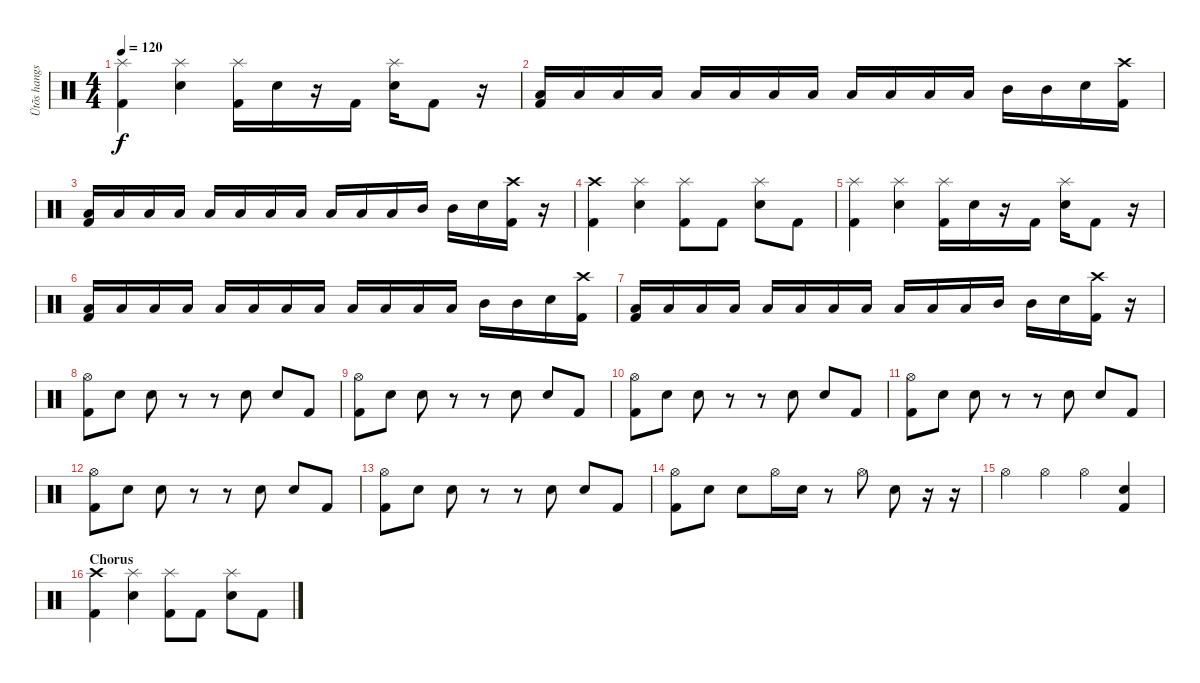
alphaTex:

\track ("Ütõs hangszer" "Ütõs hangs") {instrument percussion}
\staff {score}
\articulation defaults
\ts (4 4)
\tempo 120
\clef neutral
\ks c
("Splash (hit)" "Kick (hit) 2").4{dy f} ("Splash (hit)" "Snare (hit) 2").4 ("Splash (hit)" "Kick (hit) 2").16 "Snare (hit) 2".16 r.16 "Kick (hit) 2".16 ("Splash (hit)" "Snare (hit) 2").16 "Kick (hit) 2".8 r.16 |
("Low Tom (hit)" "Kick (hit) 2").16 "Low Tom (hit)".16 "Low Tom (hit)".16 "Low Tom (hit)".16 "Low Tom (hit)".16 "Low Tom (hit)".16 "Low Tom (hit)".16 "Low Tom (hit)".16 "Low Tom (hit)".16 "Low Tom (hit)".16 "Low Tom (hit)".16 "Low Tom (hit)".16 "Mid Tom (hit)".16 "Mid Tom (hit)".16 "Snare (hit) 2".16 ("Crash high (hit)" "Kick (hit) 2").16 |
("Low Tom (hit)" "Kick (hit) 2").16 "Low Tom (hit)".16 "Low Tom (hit)".16 "Low Tom (hit)".16 "Low Tom (hit)".16 "Low Tom (hit)".16 "Low Tom (hit)".16 "Low Tom (hit)".16 "Low Tom (hit)".16 "Low Tom (hit)".16 "Low Tom (hit)".16 "Mid Tom (hit)".16 "Mid Tom (hit)".16 "Snare (hit) 2".16 ("Crash high (hit)" "Kick (hit) 2").16 r.16 |
("Crash high (hit)" "Kick (hit) 2").4 ("Splash (hit)" "Snare (hit) 2").4 ("Splash (hit)" "Kick (hit) 2").8 "Kick (hit) 2".8 ("Splash (hit)" "Snare (hit) 2").8 "Kick (hit) 2".8 |
("Splash (hit)" "Kick (hit) 2").4 ("Splash (hit)" "Snare (hit) 2").4 ("Splash (hit)" "Kick (hit) 2").16 "Snare (hit) 2".16 r.16 "Kick (hit) 2".16 ("Splash (hit)" "Snare (hit) 2").16 "Kick (hit) 2".8 r.16 |
("Low Tom (hit)" "Kick (hit) 2").16 "Low Tom (hit)".16 "Low Tom (hit)".16 "Low Tom (hit)".16 "Low Tom (hit)".16 "Low Tom (hit)".16 "Low Tom (hit)".16 "Low Tom (hit)".16 "Low Tom (hit)".16 "Low Tom (hit)".16 "Low Tom (hit)".16 "Low Tom (hit)".16 "Mid Tom (hit)".16 "Mid Tom (hit)".16 "Snare (hit) 2".16 ("Crash high (hit)" "Kick (hit) 2").16 |
("Low Tom (hit)" "Kick (hit) 2").16 "Low Tom (hit)".16 "Low Tom (hit)".16 "Low Tom (hit)".16 "Low Tom (hit)".16 "Low Tom (hit)".16 "Low Tom (hit)".16 "Low Tom (hit)".16 "Low Tom (hit)".16 "Low Tom (hit)".16 "Low Tom (hit)".16 "Mid Tom (hit)".16 "Mid Tom (hit)".16 "Snare (hit) 2".16 ("Crash high (hit)" "Kick (hit) 2").16 r.16 |
("Hi-Hat (open)" "Kick (hit) 2").8 "Snare (hit) 2".8 "Snare (hit) 2".8 r.8 r.8 "Snare (hit) 2".8 "Snare (hit) 2".8 "Kick (hit) 2".8 |
("Hi-Hat (open)" "Kick (hit) 2").8 "Snare (hit) 2".8 "Snare (hit) 2".8 r.8 r.8 "Snare (hit) 2".8 "Snare (hit) 2".8 "Kick (hit) 2".8 |
("Hi-Hat (open)" "Kick (hit) 2").8 "Snare (hit) 2".8 "Snare (hit) 2".8 r.8 r.8 "Snare (hit) 2".8 "Snare (hit) 2".8 "Kick (hit) 2".8 |
("Hi-Hat (open)" "Kick (hit) 2").8 "Snare (hit) 2".8 "Snare (hit) 2".8 r.8 r.8 "Snare (hit) 2".8 "Snare (hit) 2".8 "Kick (hit) 2".8 |
("Hi-Hat (open)" "Kick (hit) 2").8 "Snare (hit) 2".8 "Snare (hit) 2".8 r.8 r.8 "Snare (hit) 2".8 "Snare (hit) 2".8 "Kick (hit) 2".8 |
("Hi-Hat (open)" "Kick (hit) 2").8 "Snare (hit) 2".8 "Snare (hit) 2".8 r.8 r.8 "Snare (hit) 2".8 "Snare (hit) 2".8 "Kick (hit) 2".8 |
("Hi-Hat (open)" "Kick (hit) 2").8 "Snare (hit) 2".8 "Snare (hit) 2".8 "Hi-Hat (open)".16 "Snare (hit) 2".16 r.8 "Hi-Hat (open)".8 "Snare (hit) 2".8 r.16 r.16 |
"Hi-Hat (open)".4 "Hi-Hat (open)".4 "Hi-Hat (open)".4 ("Snare (hit) 2" "Kick (hit) 2").4 |
\section ("" "Chorus")
("Crash high (hit)" "Kick (hit) 2").4 ("Splash (hit)" "Snare (hit) 2").4 ("Splash (hit)" "Kick (hit) 2").8 "Kick (hit) 2".8 ("Splash (hit)" "Snare (hit) 2").8 "Kick (hit) 2".8
